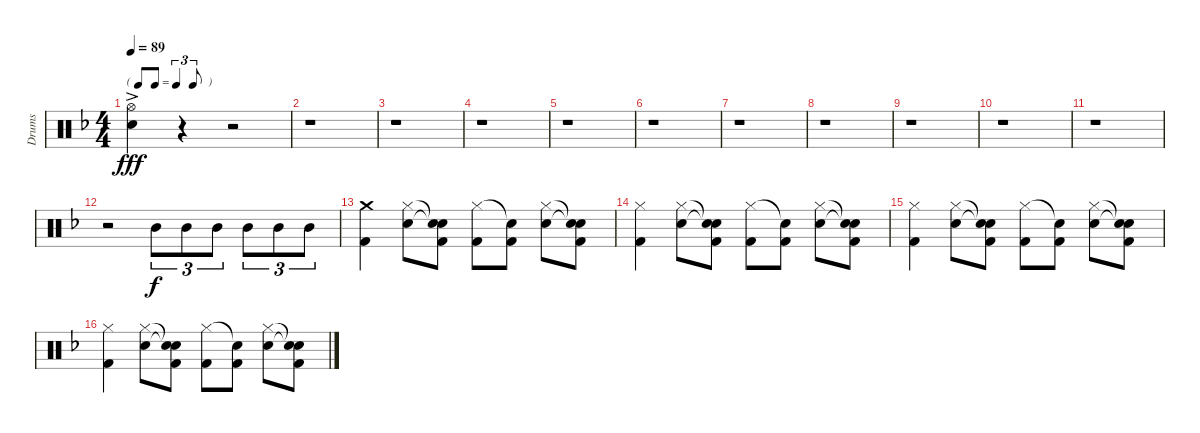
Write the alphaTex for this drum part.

\track ("Drums" "Drums") {instrument percussion}
\staff {score}
\articulation defaults
\ts (4 4)
\tf triplet8th
\tempo 89
\clef neutral
\ks f
("Hi-Hat (open)"{ac} "Snare (hit) 2").4{dy fff} r.4 r.2 |
r.1 |
r.1 |
r.1 |
r.1 |
r.1 |
r.1 |
r.1 |
r.1 |
r.1 |
r.1 |
r.2 "Mid Tom (hit)".8{tu (3 2) dy f} "Mid Tom (hit)".8{tu (3 2)} "Mid Tom (hit)".8{tu (3 2)} "Mid Tom (hit)".8{tu (3 2)} "Mid Tom (hit)".8{tu (3 2)} "Mid Tom (hit)".8{tu (3 2)} |
("Crash medium (hit)" "Kick (hit) 2").4 ("Hi-Hat (closed)" "Snare (hit) 2").8 ("Snare (hit)"{t} "Snare (hit)"{t} "Kick (hit) 2").8 ("Hi-Hat (closed)" "Kick (hit) 2").8 ("Snare (hit)"{t} "Kick (hit) 2").8 ("Hi-Hat (closed)" "Snare (hit) 2").8 ("Snare (hit)"{t} "Snare (hit)"{t} "Kick (hit) 2").8 |
("Hi-Hat (closed)" "Kick (hit) 2").4 ("Hi-Hat (closed)" "Snare (hit) 2").8 ("Snare (hit)"{t} "Snare (hit)"{t} "Kick (hit) 2").8 ("Hi-Hat (closed)" "Kick (hit) 2").8 ("Snare (hit)"{t} "Kick (hit) 2").8 ("Hi-Hat (closed)" "Snare (hit) 2").8 ("Snare (hit)"{t} "Snare (hit)"{t} "Kick (hit) 2").8 |
("Hi-Hat (closed)" "Kick (hit) 2").4 ("Hi-Hat (closed)" "Snare (hit) 2").8 ("Snare (hit)"{t} "Snare (hit)"{t} "Kick (hit) 2").8 ("Hi-Hat (closed)" "Kick (hit) 2").8 ("Snare (hit)"{t} "Kick (hit) 2").8 ("Hi-Hat (closed)" "Snare (hit) 2").8 ("Snare (hit)"{t} "Snare (hit)"{t} "Kick (hit) 2").8 |
("Hi-Hat (closed)" "Kick (hit) 2").4 ("Hi-Hat (closed)" "Snare (hit) 2").8 ("Snare (hit)"{t} "Snare (hit)"{t} "Kick (hit) 2").8 ("Hi-Hat (closed)" "Kick (hit) 2").8 ("Snare (hit)"{t} "Kick (hit) 2").8 ("Hi-Hat (closed)" "Snare (hit) 2").8 ("Snare (hit)"{t} "Snare (hit)"{t} "Kick (hit) 2").8
